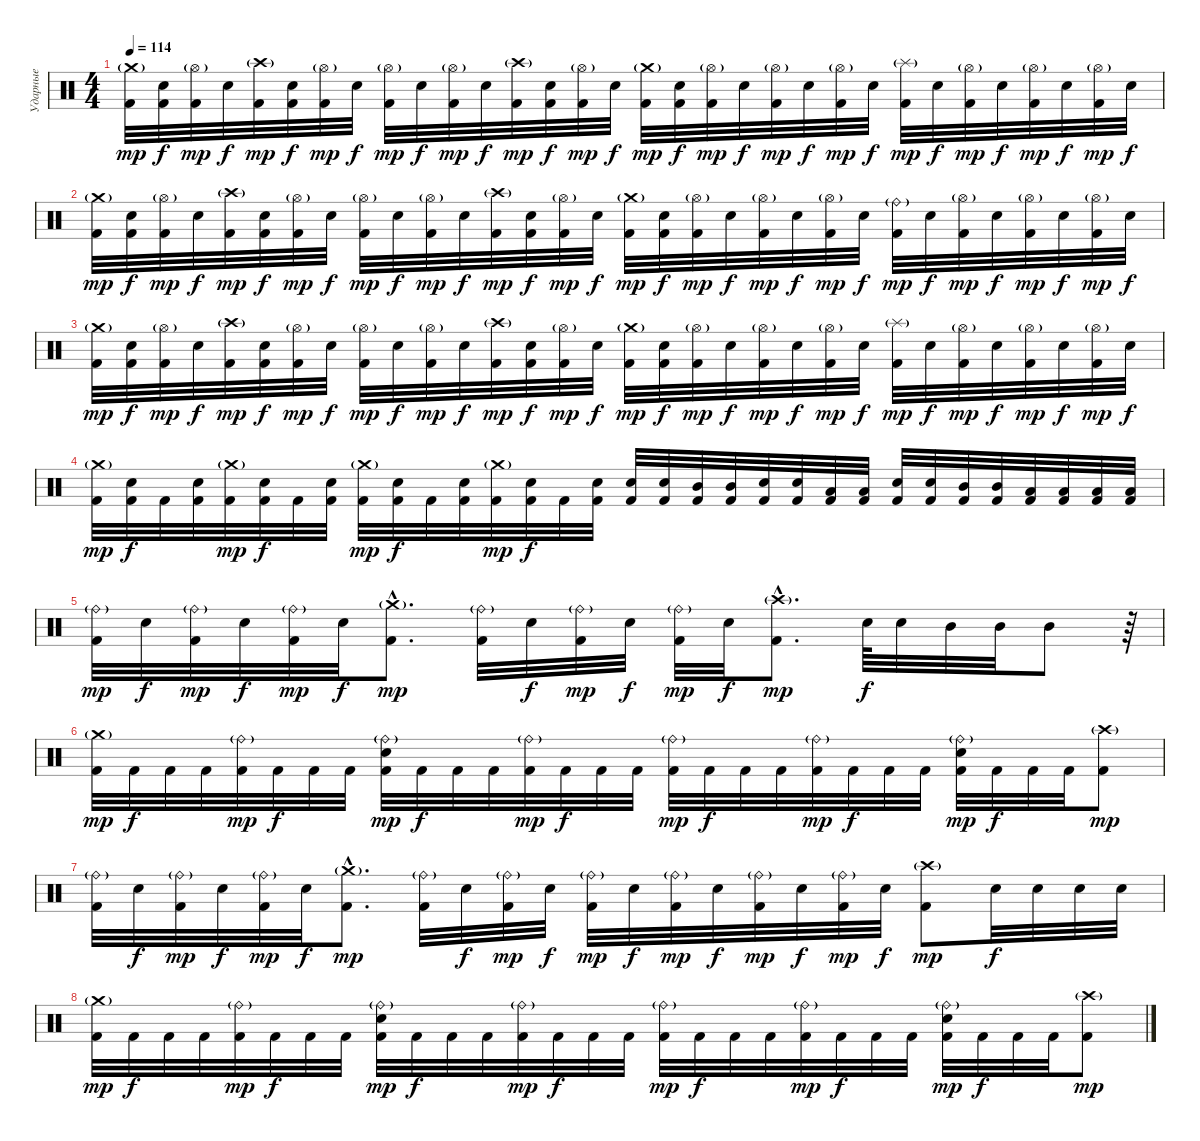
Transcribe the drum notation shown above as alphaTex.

\track ("Ударные" "Ударные") {instrument percussion}
\staff {score}
\articulation defaults
\ts (4 4)
\tempo 114
\clef neutral
\ks c
("Crash medium (hit)"{g} "Kick (hit) 2").32{dy mp} ("Electric Snare (hit)" "Kick (hit) 2").32{dy f} ("Hi-Hat (open)"{g} "Kick (hit) 2").32{dy mp} "Electric Snare (hit)".32{dy f} ("Crash high (hit)"{g} "Kick (hit) 2").32{dy mp} ("Electric Snare (hit)" "Kick (hit) 2").32{dy f} ("Hi-Hat (open)"{g} "Kick (hit) 2").32{dy mp} "Electric Snare (hit)".32{dy f} ("Hi-Hat (open)"{g} "Kick (hit) 2").32{dy mp} "Electric Snare (hit)".32{dy f} ("Hi-Hat (open)"{g} "Kick (hit) 2").32{dy mp} "Electric Snare (hit)".32{dy f} ("Crash high (hit)"{g} "Kick (hit) 2").32{dy mp} ("Electric Snare (hit)" "Kick (hit) 2").32{dy f} ("Hi-Hat (open)"{g} "Kick (hit) 2").32{dy mp} "Electric Snare (hit)".32{dy f} ("Crash medium (hit)"{g} "Kick (hit) 2").32{dy mp} ("Electric Snare (hit)" "Kick (hit) 2").32{dy f} ("Hi-Hat (open)"{g} "Kick (hit) 2").32{dy mp} "Electric Snare (hit)".32{dy f} ("Hi-Hat (open)"{g} "Kick (hit) 2").32{dy mp} "Electric Snare (hit)".32{dy f} ("Hi-Hat (open)"{g} "Kick (hit) 2").32{dy mp} "Electric Snare (hit)".32{dy f} ("Splash (hit)"{g} "Kick (hit) 2").32{dy mp} "Electric Snare (hit)".32{dy f} ("Hi-Hat (open)"{g} "Kick (hit) 2").32{dy mp} "Electric Snare (hit)".32{dy f} ("Hi-Hat (open)"{g} "Kick (hit) 2").32{dy mp} "Electric Snare (hit)".32{dy f} ("Hi-Hat (open)"{g} "Kick (hit) 2").32{dy mp} "Electric Snare (hit)".32{dy f} |
("Crash medium (hit)"{g} "Kick (hit) 2").32{dy mp} ("Electric Snare (hit)" "Kick (hit) 2").32{dy f} ("Hi-Hat (open)"{g} "Kick (hit) 2").32{dy mp} "Electric Snare (hit)".32{dy f} ("Crash high (hit)"{g} "Kick (hit) 2").32{dy mp} ("Electric Snare (hit)" "Kick (hit) 2").32{dy f} ("Hi-Hat (open)"{g} "Kick (hit) 2").32{dy mp} "Electric Snare (hit)".32{dy f} ("Hi-Hat (open)"{g} "Kick (hit) 2").32{dy mp} "Electric Snare (hit)".32{dy f} ("Hi-Hat (open)"{g} "Kick (hit) 2").32{dy mp} "Electric Snare (hit)".32{dy f} ("Crash high (hit)"{g} "Kick (hit) 2").32{dy mp} ("Electric Snare (hit)" "Kick (hit) 2").32{dy f} ("Hi-Hat (open)"{g} "Kick (hit) 2").32{dy mp} "Electric Snare (hit)".32{dy f} ("Crash medium (hit)"{g} "Kick (hit) 2").32{dy mp} ("Electric Snare (hit)" "Kick (hit) 2").32{dy f} ("Hi-Hat (open)"{g} "Kick (hit) 2").32{dy mp} "Electric Snare (hit)".32{dy f} ("Hi-Hat (open)"{g} "Kick (hit) 2").32{dy mp} "Electric Snare (hit)".32{dy f} ("Hi-Hat (open)"{g} "Kick (hit) 2").32{dy mp} "Electric Snare (hit)".32{dy f} ("Ride (bell)"{g} "Kick (hit) 2").32{dy mp} "Electric Snare (hit)".32{dy f} ("Hi-Hat (open)"{g} "Kick (hit) 2").32{dy mp} "Electric Snare (hit)".32{dy f} ("Hi-Hat (open)"{g} "Kick (hit) 2").32{dy mp} "Electric Snare (hit)".32{dy f} ("Hi-Hat (open)"{g} "Kick (hit) 2").32{dy mp} "Electric Snare (hit)".32{dy f} |
("Crash medium (hit)"{g} "Kick (hit) 2").32{dy mp} ("Electric Snare (hit)" "Kick (hit) 2").32{dy f} ("Hi-Hat (open)"{g} "Kick (hit) 2").32{dy mp} "Electric Snare (hit)".32{dy f} ("Crash high (hit)"{g} "Kick (hit) 2").32{dy mp} ("Electric Snare (hit)" "Kick (hit) 2").32{dy f} ("Hi-Hat (open)"{g} "Kick (hit) 2").32{dy mp} "Electric Snare (hit)".32{dy f} ("Hi-Hat (open)"{g} "Kick (hit) 2").32{dy mp} "Electric Snare (hit)".32{dy f} ("Hi-Hat (open)"{g} "Kick (hit) 2").32{dy mp} "Electric Snare (hit)".32{dy f} ("Crash high (hit)"{g} "Kick (hit) 2").32{dy mp} ("Electric Snare (hit)" "Kick (hit) 2").32{dy f} ("Hi-Hat (open)"{g} "Kick (hit) 2").32{dy mp} "Electric Snare (hit)".32{dy f} ("Crash medium (hit)"{g} "Kick (hit) 2").32{dy mp} ("Electric Snare (hit)" "Kick (hit) 2").32{dy f} ("Hi-Hat (open)"{g} "Kick (hit) 2").32{dy mp} "Electric Snare (hit)".32{dy f} ("Hi-Hat (open)"{g} "Kick (hit) 2").32{dy mp} "Electric Snare (hit)".32{dy f} ("Hi-Hat (open)"{g} "Kick (hit) 2").32{dy mp} "Electric Snare (hit)".32{dy f} ("Splash (hit)"{g} "Kick (hit) 2").32{dy mp} "Electric Snare (hit)".32{dy f} ("Hi-Hat (open)"{g} "Kick (hit) 2").32{dy mp} "Electric Snare (hit)".32{dy f} ("Hi-Hat (open)"{g} "Kick (hit) 2").32{dy mp} "Electric Snare (hit)".32{dy f} ("Hi-Hat (open)"{g} "Kick (hit) 2").32{dy mp} "Electric Snare (hit)".32{dy f} |
("Crash medium (hit)"{g} "Kick (hit) 2").32{dy mp} ("Electric Snare (hit)" "Kick (hit) 2").32{dy f} "Kick (hit) 2".32 ("Electric Snare (hit)" "Kick (hit) 2").32 ("Crash medium (hit)"{g} "Kick (hit) 2").32{dy mp} ("Electric Snare (hit)" "Kick (hit) 2").32{dy f} "Kick (hit) 2".32 ("Electric Snare (hit)" "Kick (hit) 2").32 ("Crash medium (hit)"{g} "Kick (hit) 2").32{dy mp} ("Electric Snare (hit)" "Kick (hit) 2").32{dy f} "Kick (hit) 2".32 ("Electric Snare (hit)" "Kick (hit) 2").32 ("Crash medium (hit)"{g} "Kick (hit) 2").32{dy mp} ("Electric Snare (hit)" "Kick (hit) 2").32{dy f} "Kick (hit) 2".32 ("Electric Snare (hit)" "Kick (hit) 2").32 ("Electric Snare (hit)" "Kick (hit) 2").32 ("Electric Snare (hit)" "Kick (hit) 2").32 ("Mid Tom (hit)" "Kick (hit) 2").32 ("Mid Tom (hit)" "Kick (hit) 2").32 ("Electric Snare (hit)" "Kick (hit) 2").32 ("Electric Snare (hit)" "Kick (hit) 2").32 ("Low Tom (hit)" "Kick (hit) 2").32 ("Low Tom (hit)" "Kick (hit) 2").32 ("Electric Snare (hit)" "Kick (hit) 2").32 ("Electric Snare (hit)" "Kick (hit) 2").32 ("Mid Tom (hit)" "Kick (hit) 2").32 ("Mid Tom (hit)" "Kick (hit) 2").32 ("Low Tom (hit)" "Kick (hit) 2").32 ("Low Tom (hit)" "Kick (hit) 2").32 ("Low Tom (hit)" "Kick (hit) 2").32 ("Low Tom (hit)" "Kick (hit) 2").32 |
("Ride (bell)"{g} "Kick (hit) 2").32{dy mp} "Electric Snare (hit)".32{dy f} ("Ride (bell)"{g} "Kick (hit) 2").32{dy mp} "Electric Snare (hit)".32{dy f} ("Ride (bell)"{g} "Kick (hit) 2").32{dy mp} "Electric Snare (hit)".32{dy f} ("Crash medium (hit)"{g hac} "Kick (hit) 2"{hac}).8{d dy mp} ("Ride (bell)"{g} "Kick (hit) 2").32 "Electric Snare (hit)".32{dy f} ("Ride (bell)"{g} "Kick (hit) 2").32{dy mp} "Electric Snare (hit)".32{dy f} ("Ride (bell)"{g} "Kick (hit) 2").32{dy mp} "Electric Snare (hit)".32{dy f} ("Crash high (hit)"{g hac} "Kick (hit) 2"{hac}).8{d dy mp} "Electric Snare (hit)".64{dy f} "Electric Snare (hit)".32 "Mid Tom (hit)".32 "Mid Tom (hit)".32 "Mid Tom (hit)".8 r.64 |
("Crash medium (hit)"{g} "Kick (hit) 2").32{dy mp} "Kick (hit) 2".32{dy f} "Kick (hit) 2".32 "Kick (hit) 2".32 ("Ride (bell)"{g} "Kick (hit) 2").32{dy mp} "Kick (hit) 2".32{dy f} "Kick (hit) 2".32 "Kick (hit) 2".32 ("Ride (bell)"{g} "Electric Snare (hit)" "Kick (hit) 2").32{dy mp} "Kick (hit) 2".32{dy f} "Kick (hit) 2".32 "Kick (hit) 2".32 ("Ride (bell)"{g} "Kick (hit) 2").32{dy mp} "Kick (hit) 2".32{dy f} "Kick (hit) 2".32 "Kick (hit) 2".32 ("Ride (bell)"{g} "Kick (hit) 2").32{dy mp} "Kick (hit) 2".32{dy f} "Kick (hit) 2".32 "Kick (hit) 2".32 ("Ride (bell)"{g} "Kick (hit) 2").32{dy mp} "Kick (hit) 2".32{dy f} "Kick (hit) 2".32 "Kick (hit) 2".32 ("Ride (bell)"{g} "Electric Snare (hit)" "Kick (hit) 2").32{dy mp} "Kick (hit) 2".32{dy f} "Kick (hit) 2".32 "Kick (hit) 2".32 ("Crash high (hit)"{g} "Kick (hit) 2").8{dy mp} |
("Ride (bell)"{g} "Kick (hit) 2").32 "Electric Snare (hit)".32{dy f} ("Ride (bell)"{g} "Kick (hit) 2").32{dy mp} "Electric Snare (hit)".32{dy f} ("Ride (bell)"{g} "Kick (hit) 2").32{dy mp} "Electric Snare (hit)".32{dy f} ("Crash medium (hit)"{g hac} "Kick (hit) 2"{hac}).8{d dy mp} ("Ride (bell)"{g} "Kick (hit) 2").32 "Electric Snare (hit)".32{dy f} ("Ride (bell)"{g} "Kick (hit) 2").32{dy mp} "Electric Snare (hit)".32{dy f} ("Ride (bell)"{g} "Kick (hit) 2").32{dy mp} "Electric Snare (hit)".32{dy f} ("Ride (bell)"{g} "Kick (hit) 2").32{dy mp} "Electric Snare (hit)".32{dy f} ("Ride (bell)"{g} "Kick (hit) 2").32{dy mp} "Electric Snare (hit)".32{dy f} ("Ride (bell)"{g} "Kick (hit) 2").32{dy mp} "Electric Snare (hit)".32{dy f} ("Crash high (hit)"{g} "Kick (hit) 2").8{dy mp} "Electric Snare (hit)".32{dy f} "Electric Snare (hit)".32 "Electric Snare (hit)".32 "Electric Snare (hit)".32 |
("Crash medium (hit)"{g} "Kick (hit) 2").32{dy mp} "Kick (hit) 2".32{dy f} "Kick (hit) 2".32 "Kick (hit) 2".32 ("Ride (bell)"{g} "Kick (hit) 2").32{dy mp} "Kick (hit) 2".32{dy f} "Kick (hit) 2".32 "Kick (hit) 2".32 ("Ride (bell)"{g} "Electric Snare (hit)" "Kick (hit) 2").32{dy mp} "Kick (hit) 2".32{dy f} "Kick (hit) 2".32 "Kick (hit) 2".32 ("Ride (bell)"{g} "Kick (hit) 2").32{dy mp} "Kick (hit) 2".32{dy f} "Kick (hit) 2".32 "Kick (hit) 2".32 ("Ride (bell)"{g} "Kick (hit) 2").32{dy mp} "Kick (hit) 2".32{dy f} "Kick (hit) 2".32 "Kick (hit) 2".32 ("Ride (bell)"{g} "Kick (hit) 2").32{dy mp} "Kick (hit) 2".32{dy f} "Kick (hit) 2".32 "Kick (hit) 2".32 ("Ride (bell)"{g} "Electric Snare (hit)" "Kick (hit) 2").32{dy mp} "Kick (hit) 2".32{dy f} "Kick (hit) 2".32 "Kick (hit) 2".32 ("Crash high (hit)"{g} "Kick (hit) 2").8{dy mp}
